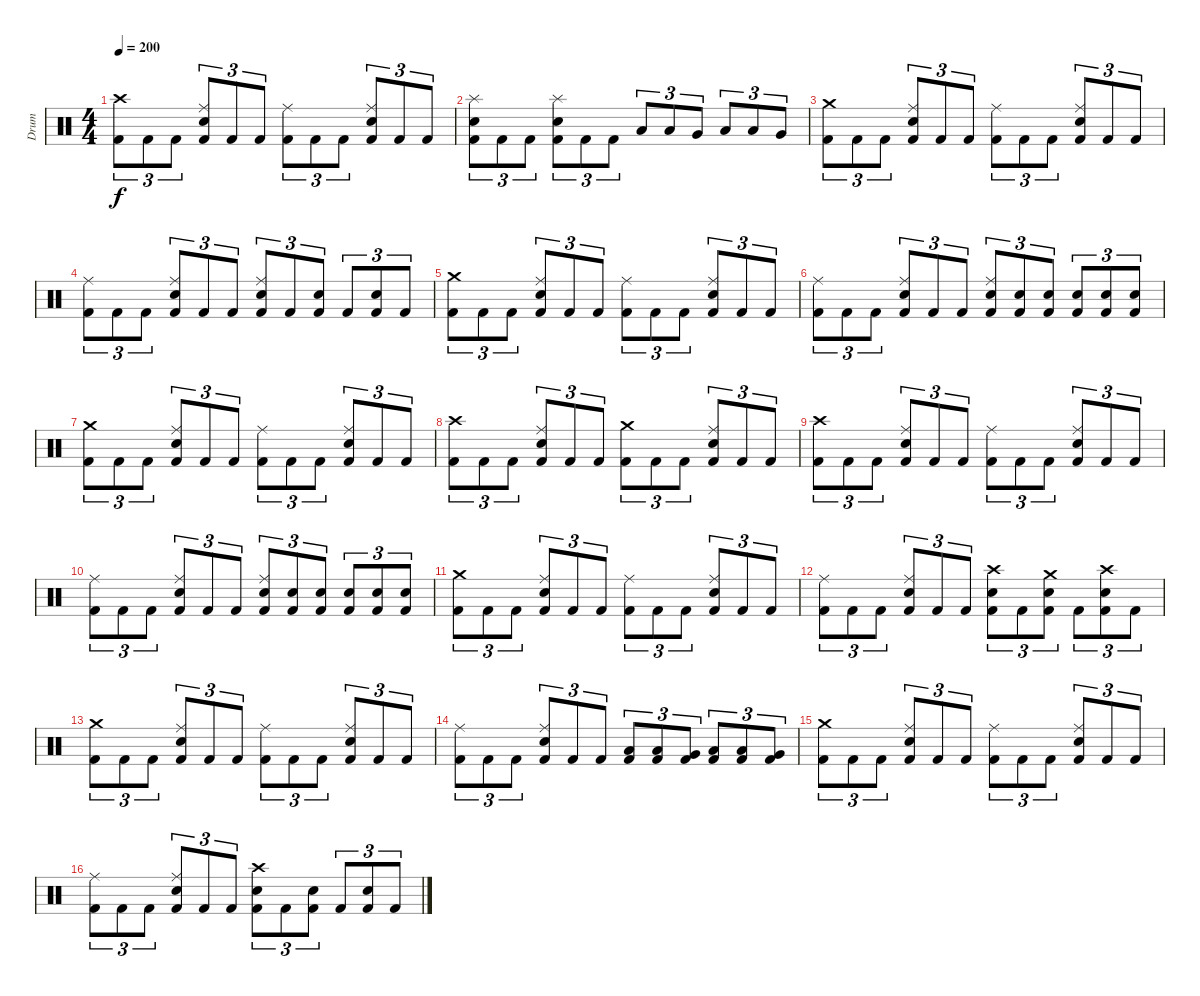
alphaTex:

\track ("Drum" "Drum") {instrument percussion}
\staff {score}
\articulation defaults
\ts (4 4)
\tempo 200
\clef neutral
\ks c
("Crash high (hit)" "Kick (hit) 2").8{tu (3 2) dy f} "Kick (hit) 2".8{tu (3 2)} "Kick (hit) 2".8{tu (3 2)} ("Ride (middle)" "Electric Snare (hit)" "Kick (hit) 2").8{tu (3 2)} "Kick (hit) 2".8{tu (3 2)} "Kick (hit) 2".8{tu (3 2)} ("Ride (middle)" "Kick (hit) 2").8{tu (3 2)} "Kick (hit) 2".8{tu (3 2)} "Kick (hit) 2".8{tu (3 2)} ("Ride (middle)" "Electric Snare (hit)" "Kick (hit) 2").8{tu (3 2)} "Kick (hit) 2".8{tu (3 2)} "Kick (hit) 2".8{tu (3 2)} |
("Splash (hit)" "Electric Snare (hit)" "Kick (hit) 2").8{tu (3 2)} "Kick (hit) 2".8{tu (3 2)} "Kick (hit) 2".8{tu (3 2)} ("Splash (hit)" "Electric Snare (hit)" "Kick (hit) 2").8{tu (3 2)} "Kick (hit) 2".8{tu (3 2)} "Kick (hit) 2".8{tu (3 2)} "Low Tom (hit)".8{tu (3 2)} "Low Tom (hit)".8{tu (3 2)} "Very Low Tom (hit)".8{tu (3 2)} "Low Tom (hit)".8{tu (3 2)} "Low Tom (hit)".8{tu (3 2)} "Very Low Tom (hit)".8{tu (3 2)} |
("Crash medium (hit)" "Kick (hit) 2").8{tu (3 2)} "Kick (hit) 2".8{tu (3 2)} "Kick (hit) 2".8{tu (3 2)} ("Ride (middle)" "Electric Snare (hit)" "Kick (hit) 2").8{tu (3 2)} "Kick (hit) 2".8{tu (3 2)} "Kick (hit) 2".8{tu (3 2)} ("Ride (middle)" "Kick (hit) 2").8{tu (3 2)} "Kick (hit) 2".8{tu (3 2)} "Kick (hit) 2".8{tu (3 2)} ("Ride (middle)" "Electric Snare (hit)" "Kick (hit) 2").8{tu (3 2)} "Kick (hit) 2".8{tu (3 2)} "Kick (hit) 2".8{tu (3 2)} |
("Ride (middle)" "Kick (hit) 2").8{tu (3 2)} "Kick (hit) 2".8{tu (3 2)} "Kick (hit) 2".8{tu (3 2)} ("Ride (middle)" "Electric Snare (hit)" "Kick (hit) 2").8{tu (3 2)} "Kick (hit) 2".8{tu (3 2)} "Kick (hit) 2".8{tu (3 2)} ("Ride (middle)" "Electric Snare (hit)" "Kick (hit) 2").8{tu (3 2)} "Kick (hit) 2".8{tu (3 2)} ("Electric Snare (hit)" "Kick (hit) 2").8{tu (3 2)} "Kick (hit) 2".8{tu (3 2)} ("Electric Snare (hit)" "Kick (hit) 2").8{tu (3 2)} "Kick (hit) 2".8{tu (3 2)} |
("Crash medium (hit)" "Kick (hit) 2").8{tu (3 2)} "Kick (hit) 2".8{tu (3 2)} "Kick (hit) 2".8{tu (3 2)} ("Ride (middle)" "Electric Snare (hit)" "Kick (hit) 2").8{tu (3 2)} "Kick (hit) 2".8{tu (3 2)} "Kick (hit) 2".8{tu (3 2)} ("Ride (middle)" "Kick (hit) 2").8{tu (3 2)} "Kick (hit) 2".8{tu (3 2)} "Kick (hit) 2".8{tu (3 2)} ("Ride (middle)" "Electric Snare (hit)" "Kick (hit) 2").8{tu (3 2)} "Kick (hit) 2".8{tu (3 2)} "Kick (hit) 2".8{tu (3 2)} |
("Ride (middle)" "Kick (hit) 2").8{tu (3 2)} "Kick (hit) 2".8{tu (3 2)} "Kick (hit) 2".8{tu (3 2)} ("Ride (middle)" "Electric Snare (hit)" "Kick (hit) 2").8{tu (3 2)} "Kick (hit) 2".8{tu (3 2)} "Kick (hit) 2".8{tu (3 2)} ("Ride (middle)" "Electric Snare (hit)" "Kick (hit) 2").8{tu (3 2)} ("Electric Snare (hit)" "Kick (hit) 2").8{tu (3 2)} ("Electric Snare (hit)" "Kick (hit) 2").8{tu (3 2)} ("Electric Snare (hit)" "Kick (hit) 2").8{tu (3 2)} ("Electric Snare (hit)" "Kick (hit) 2").8{tu (3 2)} ("Electric Snare (hit)" "Kick (hit) 2").8{tu (3 2)} |
("Crash medium (hit)" "Kick (hit) 2").8{tu (3 2)} "Kick (hit) 2".8{tu (3 2)} "Kick (hit) 2".8{tu (3 2)} ("Ride (middle)" "Electric Snare (hit)" "Kick (hit) 2").8{tu (3 2)} "Kick (hit) 2".8{tu (3 2)} "Kick (hit) 2".8{tu (3 2)} ("Ride (middle)" "Kick (hit) 2").8{tu (3 2)} "Kick (hit) 2".8{tu (3 2)} "Kick (hit) 2".8{tu (3 2)} ("Ride (middle)" "Electric Snare (hit)" "Kick (hit) 2").8{tu (3 2)} "Kick (hit) 2".8{tu (3 2)} "Kick (hit) 2".8{tu (3 2)} |
("Crash high (hit)" "Kick (hit) 2").8{tu (3 2)} "Kick (hit) 2".8{tu (3 2)} "Kick (hit) 2".8{tu (3 2)} ("Ride (middle)" "Electric Snare (hit)" "Kick (hit) 2").8{tu (3 2)} "Kick (hit) 2".8{tu (3 2)} "Kick (hit) 2".8{tu (3 2)} ("Crash medium (hit)" "Kick (hit) 2").8{tu (3 2)} "Kick (hit) 2".8{tu (3 2)} "Kick (hit) 2".8{tu (3 2)} ("Ride (middle)" "Electric Snare (hit)" "Kick (hit) 2").8{tu (3 2)} "Kick (hit) 2".8{tu (3 2)} "Kick (hit) 2".8{tu (3 2)} |
("Crash high (hit)" "Kick (hit) 2").8{tu (3 2)} "Kick (hit) 2".8{tu (3 2)} "Kick (hit) 2".8{tu (3 2)} ("Ride (middle)" "Electric Snare (hit)" "Kick (hit) 2").8{tu (3 2)} "Kick (hit) 2".8{tu (3 2)} "Kick (hit) 2".8{tu (3 2)} ("Ride (middle)" "Kick (hit) 2").8{tu (3 2)} "Kick (hit) 2".8{tu (3 2)} "Kick (hit) 2".8{tu (3 2)} ("Ride (middle)" "Electric Snare (hit)" "Kick (hit) 2").8{tu (3 2)} "Kick (hit) 2".8{tu (3 2)} "Kick (hit) 2".8{tu (3 2)} |
("Ride (middle)" "Kick (hit) 2").8{tu (3 2)} "Kick (hit) 2".8{tu (3 2)} "Kick (hit) 2".8{tu (3 2)} ("Ride (middle)" "Electric Snare (hit)" "Kick (hit) 2").8{tu (3 2)} "Kick (hit) 2".8{tu (3 2)} "Kick (hit) 2".8{tu (3 2)} ("Ride (middle)" "Electric Snare (hit)" "Kick (hit) 2").8{tu (3 2)} ("Electric Snare (hit)" "Kick (hit) 2").8{tu (3 2)} ("Electric Snare (hit)" "Kick (hit) 2").8{tu (3 2)} ("Electric Snare (hit)" "Kick (hit) 2").8{tu (3 2)} ("Electric Snare (hit)" "Kick (hit) 2").8{tu (3 2)} ("Electric Snare (hit)" "Kick (hit) 2").8{tu (3 2)} |
("Crash medium (hit)" "Kick (hit) 2").8{tu (3 2)} "Kick (hit) 2".8{tu (3 2)} "Kick (hit) 2".8{tu (3 2)} ("Ride (middle)" "Electric Snare (hit)" "Kick (hit) 2").8{tu (3 2)} "Kick (hit) 2".8{tu (3 2)} "Kick (hit) 2".8{tu (3 2)} ("Ride (middle)" "Kick (hit) 2").8{tu (3 2)} "Kick (hit) 2".8{tu (3 2)} "Kick (hit) 2".8{tu (3 2)} ("Ride (middle)" "Electric Snare (hit)" "Kick (hit) 2").8{tu (3 2)} "Kick (hit) 2".8{tu (3 2)} "Kick (hit) 2".8{tu (3 2)} |
("Ride (middle)" "Kick (hit) 2").8{tu (3 2)} "Kick (hit) 2".8{tu (3 2)} "Kick (hit) 2".8{tu (3 2)} ("Ride (middle)" "Electric Snare (hit)" "Kick (hit) 2").8{tu (3 2)} "Kick (hit) 2".8{tu (3 2)} "Kick (hit) 2".8{tu (3 2)} ("Crash high (hit)" "Electric Snare (hit)" "Kick (hit) 2").8{tu (3 2)} "Kick (hit) 2".8{tu (3 2)} ("Crash medium (hit)" "Electric Snare (hit)" "Kick (hit) 2").8{tu (3 2)} "Kick (hit) 2".8{tu (3 2)} ("Crash high (hit)" "Electric Snare (hit)" "Kick (hit) 2").8{tu (3 2)} "Kick (hit) 2".8{tu (3 2)} |
("Crash medium (hit)" "Kick (hit) 2").8{tu (3 2)} "Kick (hit) 2".8{tu (3 2)} "Kick (hit) 2".8{tu (3 2)} ("Ride (middle)" "Electric Snare (hit)" "Kick (hit) 2").8{tu (3 2)} "Kick (hit) 2".8{tu (3 2)} "Kick (hit) 2".8{tu (3 2)} ("Ride (middle)" "Kick (hit) 2").8{tu (3 2)} "Kick (hit) 2".8{tu (3 2)} "Kick (hit) 2".8{tu (3 2)} ("Ride (middle)" "Electric Snare (hit)" "Kick (hit) 2").8{tu (3 2)} "Kick (hit) 2".8{tu (3 2)} "Kick (hit) 2".8{tu (3 2)} |
("Ride (middle)" "Kick (hit) 2").8{tu (3 2)} "Kick (hit) 2".8{tu (3 2)} "Kick (hit) 2".8{tu (3 2)} ("Ride (middle)" "Electric Snare (hit)" "Kick (hit) 2").8{tu (3 2)} "Kick (hit) 2".8{tu (3 2)} "Kick (hit) 2".8{tu (3 2)} ("Low Tom (hit)" "Kick (hit) 2").8{tu (3 2)} ("Low Tom (hit)" "Kick (hit) 2").8{tu (3 2)} ("Very Low Tom (hit)" "Kick (hit) 2").8{tu (3 2)} ("Low Tom (hit)" "Kick (hit) 2").8{tu (3 2)} ("Low Tom (hit)" "Kick (hit) 2").8{tu (3 2)} ("Very Low Tom (hit)" "Kick (hit) 2").8{tu (3 2)} |
("Crash medium (hit)" "Kick (hit) 2").8{tu (3 2)} "Kick (hit) 2".8{tu (3 2)} "Kick (hit) 2".8{tu (3 2)} ("Ride (middle)" "Electric Snare (hit)" "Kick (hit) 2").8{tu (3 2)} "Kick (hit) 2".8{tu (3 2)} "Kick (hit) 2".8{tu (3 2)} ("Ride (middle)" "Kick (hit) 2").8{tu (3 2)} "Kick (hit) 2".8{tu (3 2)} "Kick (hit) 2".8{tu (3 2)} ("Ride (middle)" "Electric Snare (hit)" "Kick (hit) 2").8{tu (3 2)} "Kick (hit) 2".8{tu (3 2)} "Kick (hit) 2".8{tu (3 2)} |
("Ride (middle)" "Kick (hit) 2").8{tu (3 2)} "Kick (hit) 2".8{tu (3 2)} "Kick (hit) 2".8{tu (3 2)} ("Ride (middle)" "Electric Snare (hit)" "Kick (hit) 2").8{tu (3 2)} "Kick (hit) 2".8{tu (3 2)} "Kick (hit) 2".8{tu (3 2)} ("Crash high (hit)" "Electric Snare (hit)" "Kick (hit) 2").8{tu (3 2)} "Kick (hit) 2".8{tu (3 2)} ("Electric Snare (hit)" "Kick (hit) 2").8{tu (3 2)} "Kick (hit) 2".8{tu (3 2)} ("Electric Snare (hit)" "Kick (hit) 2").8{tu (3 2)} "Kick (hit) 2".8{tu (3 2)}
